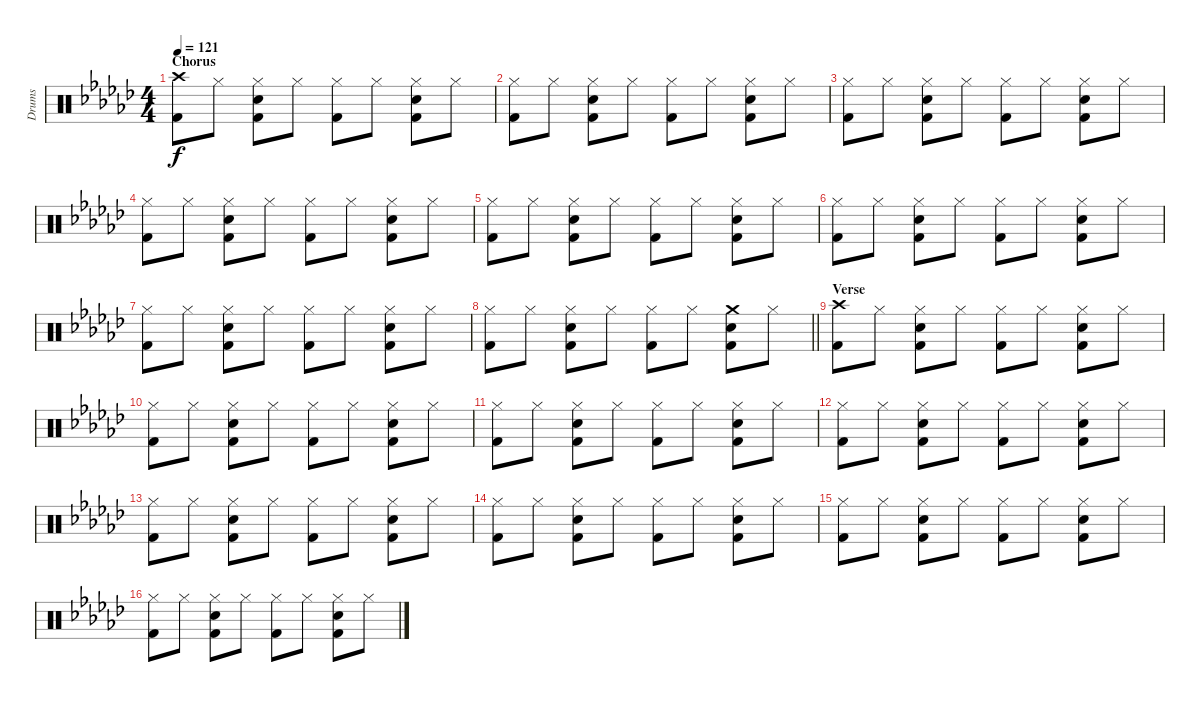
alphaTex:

\track ("Drums" "Drums") {instrument percussion}
\staff {score}
\articulation defaults
\ts (4 4)
\section ("" "Chorus")
\tempo 121
\clef neutral
\ks ebminor
("Crash high (hit)" "Kick (hit) 2").8{dy f} "Hi-Hat (closed)".8 ("Hi-Hat (closed)" "Snare (hit) 2" "Kick (hit) 2").8 "Hi-Hat (closed)".8 ("Hi-Hat (closed)" "Kick (hit) 2").8 "Hi-Hat (closed)".8 ("Hi-Hat (closed)" "Snare (hit) 2" "Kick (hit) 2").8 "Hi-Hat (closed)".8 |
("Hi-Hat (closed)" "Kick (hit) 2").8 "Hi-Hat (closed)".8 ("Hi-Hat (closed)" "Snare (hit) 2" "Kick (hit) 2").8 "Hi-Hat (closed)".8 ("Hi-Hat (closed)" "Kick (hit) 2").8 "Hi-Hat (closed)".8 ("Hi-Hat (closed)" "Snare (hit) 2" "Kick (hit) 2").8 "Hi-Hat (closed)".8 |
("Hi-Hat (closed)" "Kick (hit) 2").8 "Hi-Hat (closed)".8 ("Hi-Hat (closed)" "Snare (hit) 2" "Kick (hit) 2").8 "Hi-Hat (closed)".8 ("Hi-Hat (closed)" "Kick (hit) 2").8 "Hi-Hat (closed)".8 ("Hi-Hat (closed)" "Snare (hit) 2" "Kick (hit) 2").8 "Hi-Hat (closed)".8 |
("Hi-Hat (closed)" "Kick (hit) 2").8 "Hi-Hat (closed)".8 ("Hi-Hat (closed)" "Snare (hit) 2" "Kick (hit) 2").8 "Hi-Hat (closed)".8 ("Hi-Hat (closed)" "Kick (hit) 2").8 "Hi-Hat (closed)".8 ("Hi-Hat (closed)" "Snare (hit) 2" "Kick (hit) 2").8 "Hi-Hat (closed)".8 |
("Hi-Hat (closed)" "Kick (hit) 2").8 "Hi-Hat (closed)".8 ("Hi-Hat (closed)" "Snare (hit) 2" "Kick (hit) 2").8 "Hi-Hat (closed)".8 ("Hi-Hat (closed)" "Kick (hit) 2").8 "Hi-Hat (closed)".8 ("Hi-Hat (closed)" "Snare (hit) 2" "Kick (hit) 2").8 "Hi-Hat (closed)".8 |
("Hi-Hat (closed)" "Kick (hit) 2").8 "Hi-Hat (closed)".8 ("Hi-Hat (closed)" "Snare (hit) 2" "Kick (hit) 2").8 "Hi-Hat (closed)".8 ("Hi-Hat (closed)" "Kick (hit) 2").8 "Hi-Hat (closed)".8 ("Hi-Hat (closed)" "Snare (hit) 2" "Kick (hit) 2").8 "Hi-Hat (closed)".8 |
("Hi-Hat (closed)" "Kick (hit) 2").8 "Hi-Hat (closed)".8 ("Hi-Hat (closed)" "Snare (hit) 2" "Kick (hit) 2").8 "Hi-Hat (closed)".8 ("Hi-Hat (closed)" "Kick (hit) 2").8 "Hi-Hat (closed)".8 ("Hi-Hat (closed)" "Snare (hit) 2" "Kick (hit) 2").8 "Hi-Hat (closed)".8 |
\barLineRight lightlight
("Hi-Hat (closed)" "Kick (hit) 2").8 "Hi-Hat (closed)".8 ("Hi-Hat (closed)" "Snare (hit) 2" "Kick (hit) 2").8 "Hi-Hat (closed)".8 ("Hi-Hat (closed)" "Kick (hit) 2").8 "Hi-Hat (closed)".8 ("Crash medium (hit)" "Snare (hit) 2" "Kick (hit) 2").8 "Hi-Hat (closed)".8 |
\section ("" "Verse")
("Crash high (hit)" "Kick (hit) 2").8 "Hi-Hat (closed)".8 ("Hi-Hat (closed)" "Snare (hit) 2" "Kick (hit) 2").8 "Hi-Hat (closed)".8 ("Hi-Hat (closed)" "Kick (hit) 2").8 "Hi-Hat (closed)".8 ("Hi-Hat (closed)" "Snare (hit) 2" "Kick (hit) 2").8 "Hi-Hat (closed)".8 |
("Hi-Hat (closed)" "Kick (hit) 2").8 "Hi-Hat (closed)".8 ("Hi-Hat (closed)" "Snare (hit) 2" "Kick (hit) 2").8 "Hi-Hat (closed)".8 ("Hi-Hat (closed)" "Kick (hit) 2").8 "Hi-Hat (closed)".8 ("Hi-Hat (closed)" "Snare (hit) 2" "Kick (hit) 2").8 "Hi-Hat (closed)".8 |
("Hi-Hat (closed)" "Kick (hit) 2").8 "Hi-Hat (closed)".8 ("Hi-Hat (closed)" "Snare (hit) 2" "Kick (hit) 2").8 "Hi-Hat (closed)".8 ("Hi-Hat (closed)" "Kick (hit) 2").8 "Hi-Hat (closed)".8 ("Hi-Hat (closed)" "Snare (hit) 2" "Kick (hit) 2").8 "Hi-Hat (closed)".8 |
("Hi-Hat (closed)" "Kick (hit) 2").8 "Hi-Hat (closed)".8 ("Hi-Hat (closed)" "Snare (hit) 2" "Kick (hit) 2").8 "Hi-Hat (closed)".8 ("Hi-Hat (closed)" "Kick (hit) 2").8 "Hi-Hat (closed)".8 ("Hi-Hat (closed)" "Snare (hit) 2" "Kick (hit) 2").8 "Hi-Hat (closed)".8 |
("Hi-Hat (closed)" "Kick (hit) 2").8 "Hi-Hat (closed)".8 ("Hi-Hat (closed)" "Snare (hit) 2" "Kick (hit) 2").8 "Hi-Hat (closed)".8 ("Hi-Hat (closed)" "Kick (hit) 2").8 "Hi-Hat (closed)".8 ("Hi-Hat (closed)" "Snare (hit) 2" "Kick (hit) 2").8 "Hi-Hat (closed)".8 |
("Hi-Hat (closed)" "Kick (hit) 2").8 "Hi-Hat (closed)".8 ("Hi-Hat (closed)" "Snare (hit) 2" "Kick (hit) 2").8 "Hi-Hat (closed)".8 ("Hi-Hat (closed)" "Kick (hit) 2").8 "Hi-Hat (closed)".8 ("Hi-Hat (closed)" "Snare (hit) 2" "Kick (hit) 2").8 "Hi-Hat (closed)".8 |
("Hi-Hat (closed)" "Kick (hit) 2").8 "Hi-Hat (closed)".8 ("Hi-Hat (closed)" "Snare (hit) 2" "Kick (hit) 2").8 "Hi-Hat (closed)".8 ("Hi-Hat (closed)" "Kick (hit) 2").8 "Hi-Hat (closed)".8 ("Hi-Hat (closed)" "Snare (hit) 2" "Kick (hit) 2").8 "Hi-Hat (closed)".8 |
("Hi-Hat (closed)" "Kick (hit) 2").8 "Hi-Hat (closed)".8 ("Hi-Hat (closed)" "Snare (hit) 2" "Kick (hit) 2").8 "Hi-Hat (closed)".8 ("Hi-Hat (closed)" "Kick (hit) 2").8 "Hi-Hat (closed)".8 ("Hi-Hat (closed)" "Snare (hit) 2" "Kick (hit) 2").8 "Hi-Hat (closed)".8
